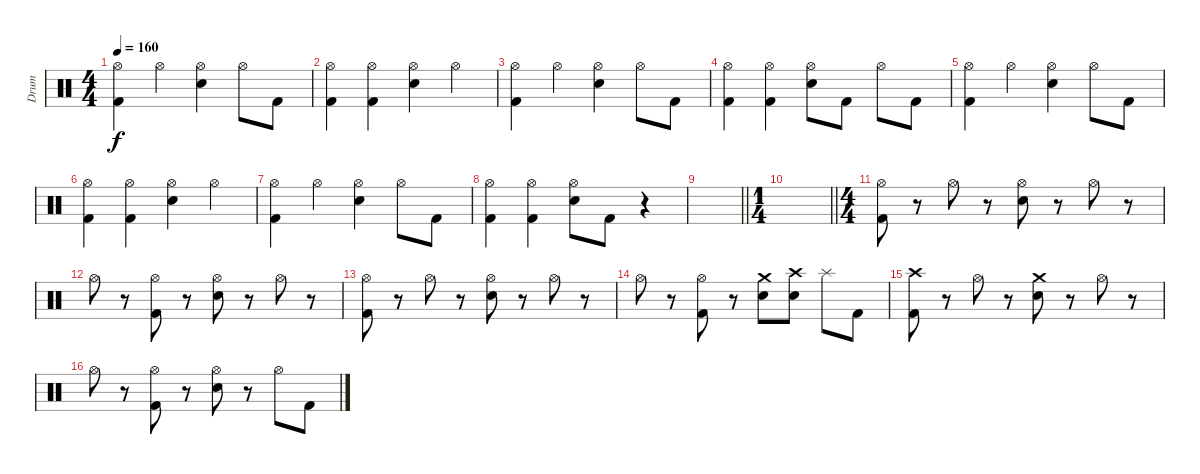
\track ("Drum" "Drum") {instrument percussion}
\staff {score}
\articulation defaults
\ts (4 4)
\tempo 160
\clef neutral
\ks c
("Hi-Hat (open)" "Kick (hit) 2").4{dy f} "Hi-Hat (open)".4{volume 12} ("Hi-Hat (open)" "Electric Snare (hit)").4 "Hi-Hat (open)".8{volume 13} "Kick (hit) 2".8 |
("Hi-Hat (open)" "Kick (hit) 2").4 ("Hi-Hat (open)" "Kick (hit) 2").4 ("Hi-Hat (open)" "Electric Snare (hit)").4 "Hi-Hat (open)".4 |
("Hi-Hat (open)" "Kick (hit) 2").4 "Hi-Hat (open)".4 ("Hi-Hat (open)" "Electric Snare (hit)").4 "Hi-Hat (open)".8 "Kick (hit) 2".8 |
("Hi-Hat (open)" "Kick (hit) 2").4 ("Hi-Hat (open)" "Kick (hit) 2").4 ("Hi-Hat (open)" "Electric Snare (hit)").8 "Kick (hit) 2".8 "Hi-Hat (open)".8 "Kick (hit) 2".8 |
("Hi-Hat (open)" "Kick (hit) 2").4 "Hi-Hat (open)".4 ("Hi-Hat (open)" "Electric Snare (hit)").4 "Hi-Hat (open)".8 "Kick (hit) 2".8 |
("Hi-Hat (open)" "Kick (hit) 2").4 ("Hi-Hat (open)" "Kick (hit) 2").4 ("Hi-Hat (open)" "Electric Snare (hit)").4 "Hi-Hat (open)".4 |
("Hi-Hat (open)" "Kick (hit) 2").4 "Hi-Hat (open)".4 ("Hi-Hat (open)" "Electric Snare (hit)").4 "Hi-Hat (open)".8 "Kick (hit) 2".8 |
("Hi-Hat (open)" "Kick (hit) 2").4 ("Hi-Hat (open)" "Kick (hit) 2").4 ("Hi-Hat (open)" "Electric Snare (hit)").8 "Kick (hit) 2".8 r.4 |
\barLineRight lightlight
|
\ts (1 4)
\barLineRight lightlight
|
\ts (4 4)
("Hi-Hat (open)" "Kick (hit) 2").8 r.8 "Hi-Hat (open)".8 r.8 ("Hi-Hat (open)" "Electric Snare (hit)").8 r.8 "Hi-Hat (open)".8 r.8 |
"Hi-Hat (open)".8 r.8 ("Hi-Hat (open)" "Kick (hit) 2").8 r.8 ("Hi-Hat (open)" "Electric Snare (hit)").8 r.8 "Hi-Hat (open)".8 r.8 |
("Hi-Hat (open)" "Kick (hit) 2").8 r.8 "Hi-Hat (open)".8 r.8 ("Hi-Hat (open)" "Electric Snare (hit)").8 r.8 "Hi-Hat (open)".8 r.8 |
"Hi-Hat (open)".8 r.8 ("Hi-Hat (open)" "Kick (hit) 2").8 r.8 ("Crash medium (hit)" "Electric Snare (hit)").8 ("Crash high (hit)" "Electric Snare (hit)").8 "Splash (hit)".8 "Kick (hit) 2".8 |
("Crash high (hit)" "Kick (hit) 2").8 r.8 "Hi-Hat (open)".8 r.8 ("Crash medium (hit)" "Electric Snare (hit)").8 r.8 "Hi-Hat (open)".8 r.8 |
"Hi-Hat (open)".8 r.8 ("Hi-Hat (open)" "Kick (hit) 2").8 r.8 ("Hi-Hat (open)" "Electric Snare (hit)").8 r.8 "Hi-Hat (open)".8 "Kick (hit) 2".8
